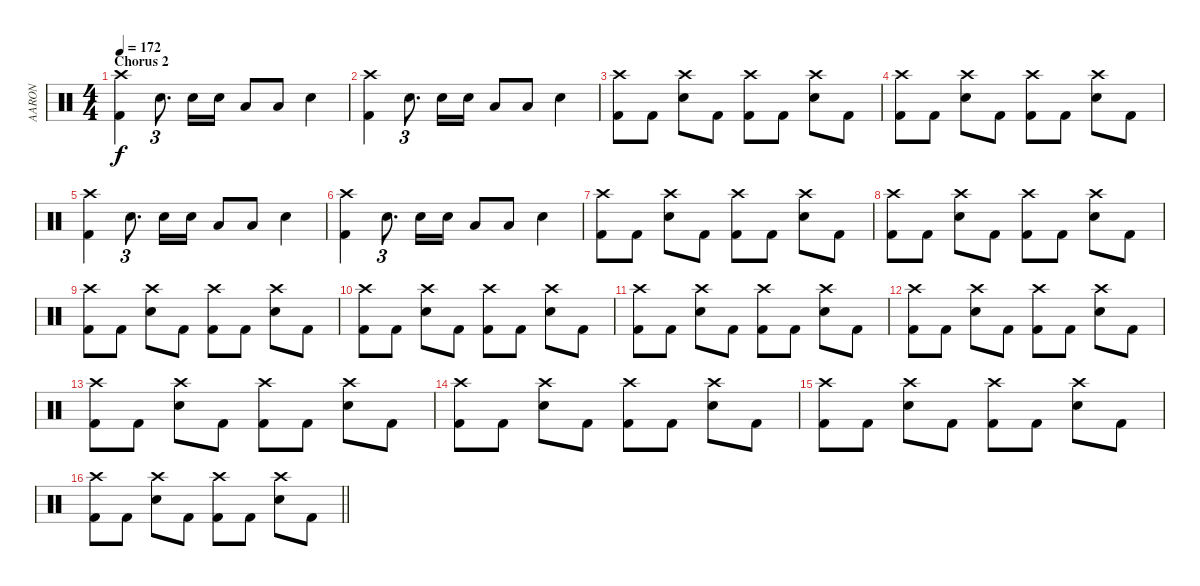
\track ("AARON" "AARON") {instrument percussion}
\staff {score}
\articulation defaults
\ts (4 4)
\section ("" "Chorus 2")
\tempo 172
\clef neutral
\ks c
("Crash high (hit)" "Kick (hit) 2").4{dy f} "Electric Snare (hit)".8{d tu (3 2)} "Electric Snare (hit)".16 "Electric Snare (hit)".16 "Low Tom (hit)".8 "Low Tom (hit)".8 "Electric Snare (hit)".4 |
("Crash high (hit)" "Kick (hit) 2").4 "Electric Snare (hit)".8{d tu (3 2)} "Electric Snare (hit)".16 "Electric Snare (hit)".16 "Low Tom (hit)".8 "Low Tom (hit)".8 "Electric Snare (hit)".4 |
("Crash high (hit)" "Kick (hit) 2").8 "Kick (hit) 2".8 ("Crash high (hit)" "Electric Snare (hit)").8 "Kick (hit) 2".8 ("Crash high (hit)" "Kick (hit) 2").8 "Kick (hit) 2".8 ("Crash high (hit)" "Electric Snare (hit)").8 "Kick (hit) 2".8 |
("Crash high (hit)" "Kick (hit) 2").8 "Kick (hit) 2".8 ("Crash high (hit)" "Electric Snare (hit)").8 "Kick (hit) 2".8 ("Crash high (hit)" "Kick (hit) 2").8 "Kick (hit) 2".8 ("Crash high (hit)" "Electric Snare (hit)").8 "Kick (hit) 2".8 |
("Crash high (hit)" "Kick (hit) 2").4 "Electric Snare (hit)".8{d tu (3 2)} "Electric Snare (hit)".16 "Electric Snare (hit)".16 "Low Tom (hit)".8 "Low Tom (hit)".8 "Electric Snare (hit)".4 |
("Crash high (hit)" "Kick (hit) 2").4 "Electric Snare (hit)".8{d tu (3 2)} "Electric Snare (hit)".16 "Electric Snare (hit)".16 "Low Tom (hit)".8 "Low Tom (hit)".8 "Electric Snare (hit)".4 |
("Crash high (hit)" "Kick (hit) 2").8 "Kick (hit) 2".8 ("Crash high (hit)" "Electric Snare (hit)").8 "Kick (hit) 2".8 ("Crash high (hit)" "Kick (hit) 2").8 "Kick (hit) 2".8 ("Crash high (hit)" "Electric Snare (hit)").8 "Kick (hit) 2".8 |
("Crash high (hit)" "Kick (hit) 2").8 "Kick (hit) 2".8 ("Crash high (hit)" "Electric Snare (hit)").8 "Kick (hit) 2".8 ("Crash high (hit)" "Kick (hit) 2").8 "Kick (hit) 2".8 ("Crash high (hit)" "Electric Snare (hit)").8 "Kick (hit) 2".8 |
("Crash high (hit)" "Kick (hit) 2").8 "Kick (hit) 2".8 ("Crash high (hit)" "Electric Snare (hit)").8 "Kick (hit) 2".8 ("Crash high (hit)" "Kick (hit) 2").8 "Kick (hit) 2".8 ("Crash high (hit)" "Electric Snare (hit)").8 "Kick (hit) 2".8 |
("Crash high (hit)" "Kick (hit) 2").8 "Kick (hit) 2".8 ("Crash high (hit)" "Electric Snare (hit)").8 "Kick (hit) 2".8 ("Crash high (hit)" "Kick (hit) 2").8 "Kick (hit) 2".8 ("Crash high (hit)" "Electric Snare (hit)").8 "Kick (hit) 2".8 |
("Crash high (hit)" "Kick (hit) 2").8 "Kick (hit) 2".8 ("Crash high (hit)" "Electric Snare (hit)").8 "Kick (hit) 2".8 ("Crash high (hit)" "Kick (hit) 2").8 "Kick (hit) 2".8 ("Crash high (hit)" "Electric Snare (hit)").8 "Kick (hit) 2".8 |
("Crash high (hit)" "Kick (hit) 2").8 "Kick (hit) 2".8 ("Crash high (hit)" "Electric Snare (hit)").8 "Kick (hit) 2".8 ("Crash high (hit)" "Kick (hit) 2").8 "Kick (hit) 2".8 ("Crash high (hit)" "Electric Snare (hit)").8 "Kick (hit) 2".8 |
("Crash high (hit)" "Kick (hit) 2").8 "Kick (hit) 2".8 ("Crash high (hit)" "Electric Snare (hit)").8 "Kick (hit) 2".8 ("Crash high (hit)" "Kick (hit) 2").8 "Kick (hit) 2".8 ("Crash high (hit)" "Electric Snare (hit)").8 "Kick (hit) 2".8 |
("Crash high (hit)" "Kick (hit) 2").8 "Kick (hit) 2".8 ("Crash high (hit)" "Electric Snare (hit)").8 "Kick (hit) 2".8 ("Crash high (hit)" "Kick (hit) 2").8 "Kick (hit) 2".8 ("Crash high (hit)" "Electric Snare (hit)").8 "Kick (hit) 2".8 |
("Crash high (hit)" "Kick (hit) 2").8 "Kick (hit) 2".8 ("Crash high (hit)" "Electric Snare (hit)").8 "Kick (hit) 2".8 ("Crash high (hit)" "Kick (hit) 2").8 "Kick (hit) 2".8 ("Crash high (hit)" "Electric Snare (hit)").8 "Kick (hit) 2".8 |
\barLineRight lightlight
("Crash high (hit)" "Kick (hit) 2").8 "Kick (hit) 2".8 ("Crash high (hit)" "Electric Snare (hit)").8 "Kick (hit) 2".8 ("Crash high (hit)" "Kick (hit) 2").8 "Kick (hit) 2".8 ("Crash high (hit)" "Electric Snare (hit)").8 "Kick (hit) 2".8
